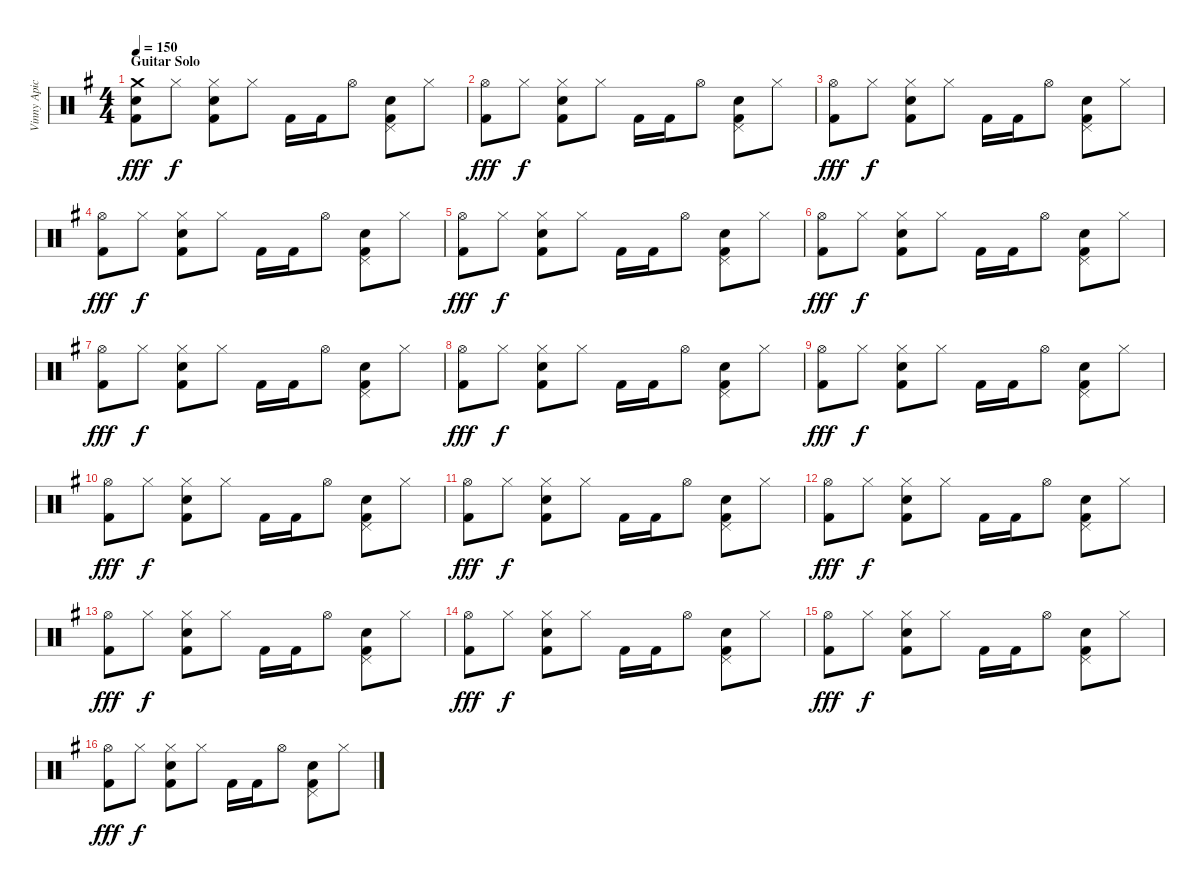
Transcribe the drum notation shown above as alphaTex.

\track ("Vinny Apice" "Vinny Apic") {instrument percussion}
\staff {score}
\articulation defaults
\ts (4 4)
\section ("" "Guitar Solo")
\tempo 150
\clef neutral
\ks g
("Crash medium (hit)" "Snare (hit) 2" "Kick (hit) 2").8{dy fff} "Hi-Hat (closed)".8{dy f} ("Hi-Hat (closed)" "Snare (hit) 2" "Kick (hit) 2").8 "Hi-Hat (closed)".8 "Kick (hit) 2".16 "Kick (hit) 2".16 "Hi-Hat (open)".8 ("Pedal Hi-Hat (hit)" "Snare (hit) 2" "Kick (hit) 2").8 "Hi-Hat (closed)".8 |
("Hi-Hat (open)" "Kick (hit) 2").8{dy fff} "Hi-Hat (closed)".8{dy f} ("Hi-Hat (closed)" "Snare (hit) 2" "Kick (hit) 2").8 "Hi-Hat (closed)".8 "Kick (hit) 2".16 "Kick (hit) 2".16 "Hi-Hat (open)".8 ("Pedal Hi-Hat (hit)" "Snare (hit) 2" "Kick (hit) 2").8 "Hi-Hat (closed)".8 |
("Hi-Hat (open)" "Kick (hit) 2").8{dy fff} "Hi-Hat (closed)".8{dy f} ("Hi-Hat (closed)" "Snare (hit) 2" "Kick (hit) 2").8 "Hi-Hat (closed)".8 "Kick (hit) 2".16 "Kick (hit) 2".16 "Hi-Hat (open)".8 ("Pedal Hi-Hat (hit)" "Snare (hit) 2" "Kick (hit) 2").8 "Hi-Hat (closed)".8 |
("Hi-Hat (open)" "Kick (hit) 2").8{dy fff} "Hi-Hat (closed)".8{dy f} ("Hi-Hat (closed)" "Snare (hit) 2" "Kick (hit) 2").8 "Hi-Hat (closed)".8 "Kick (hit) 2".16 "Kick (hit) 2".16 "Hi-Hat (open)".8 ("Pedal Hi-Hat (hit)" "Snare (hit) 2" "Kick (hit) 2").8 "Hi-Hat (closed)".8 |
("Hi-Hat (open)" "Kick (hit) 2").8{dy fff} "Hi-Hat (closed)".8{dy f} ("Hi-Hat (closed)" "Snare (hit) 2" "Kick (hit) 2").8 "Hi-Hat (closed)".8 "Kick (hit) 2".16 "Kick (hit) 2".16 "Hi-Hat (open)".8 ("Pedal Hi-Hat (hit)" "Snare (hit) 2" "Kick (hit) 2").8 "Hi-Hat (closed)".8 |
("Hi-Hat (open)" "Kick (hit) 2").8{dy fff} "Hi-Hat (closed)".8{dy f} ("Hi-Hat (closed)" "Snare (hit) 2" "Kick (hit) 2").8 "Hi-Hat (closed)".8 "Kick (hit) 2".16 "Kick (hit) 2".16 "Hi-Hat (open)".8 ("Pedal Hi-Hat (hit)" "Snare (hit) 2" "Kick (hit) 2").8 "Hi-Hat (closed)".8 |
("Hi-Hat (open)" "Kick (hit) 2").8{dy fff} "Hi-Hat (closed)".8{dy f} ("Hi-Hat (closed)" "Snare (hit) 2" "Kick (hit) 2").8 "Hi-Hat (closed)".8 "Kick (hit) 2".16 "Kick (hit) 2".16 "Hi-Hat (open)".8 ("Pedal Hi-Hat (hit)" "Snare (hit) 2" "Kick (hit) 2").8 "Hi-Hat (closed)".8 |
("Hi-Hat (open)" "Kick (hit) 2").8{dy fff} "Hi-Hat (closed)".8{dy f} ("Hi-Hat (closed)" "Snare (hit) 2" "Kick (hit) 2").8 "Hi-Hat (closed)".8 "Kick (hit) 2".16 "Kick (hit) 2".16 "Hi-Hat (open)".8 ("Pedal Hi-Hat (hit)" "Snare (hit) 2" "Kick (hit) 2").8 "Hi-Hat (closed)".8 |
("Hi-Hat (open)" "Kick (hit) 2").8{dy fff} "Hi-Hat (closed)".8{dy f} ("Hi-Hat (closed)" "Snare (hit) 2" "Kick (hit) 2").8 "Hi-Hat (closed)".8 "Kick (hit) 2".16 "Kick (hit) 2".16 "Hi-Hat (open)".8 ("Pedal Hi-Hat (hit)" "Snare (hit) 2" "Kick (hit) 2").8 "Hi-Hat (closed)".8 |
("Hi-Hat (open)" "Kick (hit) 2").8{dy fff} "Hi-Hat (closed)".8{dy f} ("Hi-Hat (closed)" "Snare (hit) 2" "Kick (hit) 2").8 "Hi-Hat (closed)".8 "Kick (hit) 2".16 "Kick (hit) 2".16 "Hi-Hat (open)".8 ("Pedal Hi-Hat (hit)" "Snare (hit) 2" "Kick (hit) 2").8 "Hi-Hat (closed)".8 |
("Hi-Hat (open)" "Kick (hit) 2").8{dy fff} "Hi-Hat (closed)".8{dy f} ("Hi-Hat (closed)" "Snare (hit) 2" "Kick (hit) 2").8 "Hi-Hat (closed)".8 "Kick (hit) 2".16 "Kick (hit) 2".16 "Hi-Hat (open)".8 ("Pedal Hi-Hat (hit)" "Snare (hit) 2" "Kick (hit) 2").8 "Hi-Hat (closed)".8 |
("Hi-Hat (open)" "Kick (hit) 2").8{dy fff} "Hi-Hat (closed)".8{dy f} ("Hi-Hat (closed)" "Snare (hit) 2" "Kick (hit) 2").8 "Hi-Hat (closed)".8 "Kick (hit) 2".16 "Kick (hit) 2".16 "Hi-Hat (open)".8 ("Pedal Hi-Hat (hit)" "Snare (hit) 2" "Kick (hit) 2").8 "Hi-Hat (closed)".8 |
("Hi-Hat (open)" "Kick (hit) 2").8{dy fff} "Hi-Hat (closed)".8{dy f} ("Hi-Hat (closed)" "Snare (hit) 2" "Kick (hit) 2").8 "Hi-Hat (closed)".8 "Kick (hit) 2".16 "Kick (hit) 2".16 "Hi-Hat (open)".8 ("Pedal Hi-Hat (hit)" "Snare (hit) 2" "Kick (hit) 2").8 "Hi-Hat (closed)".8 |
("Hi-Hat (open)" "Kick (hit) 2").8{dy fff} "Hi-Hat (closed)".8{dy f} ("Hi-Hat (closed)" "Snare (hit) 2" "Kick (hit) 2").8 "Hi-Hat (closed)".8 "Kick (hit) 2".16 "Kick (hit) 2".16 "Hi-Hat (open)".8 ("Pedal Hi-Hat (hit)" "Snare (hit) 2" "Kick (hit) 2").8 "Hi-Hat (closed)".8 |
("Hi-Hat (open)" "Kick (hit) 2").8{dy fff} "Hi-Hat (closed)".8{dy f} ("Hi-Hat (closed)" "Snare (hit) 2" "Kick (hit) 2").8 "Hi-Hat (closed)".8 "Kick (hit) 2".16 "Kick (hit) 2".16 "Hi-Hat (open)".8 ("Pedal Hi-Hat (hit)" "Snare (hit) 2" "Kick (hit) 2").8 "Hi-Hat (closed)".8 |
("Hi-Hat (open)" "Kick (hit) 2").8{dy fff} "Hi-Hat (closed)".8{dy f} ("Hi-Hat (closed)" "Snare (hit) 2" "Kick (hit) 2").8 "Hi-Hat (closed)".8 "Kick (hit) 2".16 "Kick (hit) 2".16 "Hi-Hat (open)".8 ("Pedal Hi-Hat (hit)" "Snare (hit) 2" "Kick (hit) 2").8 "Hi-Hat (closed)".8
